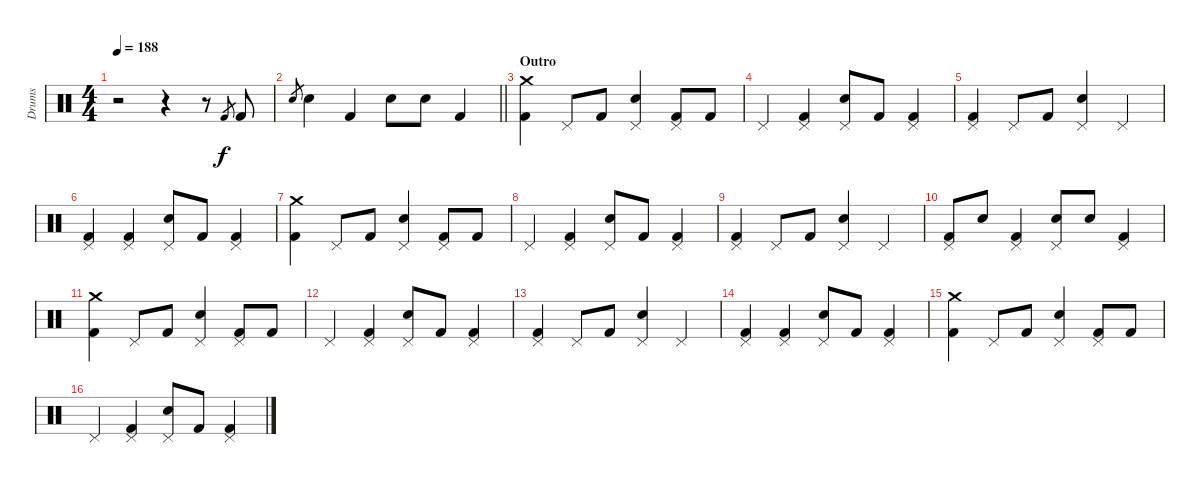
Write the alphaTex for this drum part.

\track ("Drums" "Drums") {instrument percussion}
\staff {score}
\articulation defaults
\ts (4 4)
\tempo 188
\clef neutral
\ks c
r.2{dy f} r.4 r.8 "Kick (hit) 2".8{gr} "Kick (hit) 2".8 |
\barLineRight lightlight "Electric Snare (hit)".8{gr} "Electric Snare (hit)".4 "Kick (hit) 2".4 "Electric Snare (hit)".8 "Electric Snare (hit)".8 "Kick (hit) 2".4
|
\section ("" "Outro")
("Crash medium (hit)" "Kick (hit) 2").4 "Pedal Hi-Hat (hit)".8 "Kick (hit) 2".8 ("Pedal Hi-Hat (hit)" "Electric Snare (hit)").4 ("Pedal Hi-Hat (hit)" "Kick (hit) 2").8 "Kick (hit) 2".8 |
"Pedal Hi-Hat (hit)".4 ("Pedal Hi-Hat (hit)" "Kick (hit) 2").4 ("Pedal Hi-Hat (hit)" "Electric Snare (hit)").8 "Kick (hit) 2".8 ("Pedal Hi-Hat (hit)" "Kick (hit) 2").4 |
("Pedal Hi-Hat (hit)" "Kick (hit) 2").4 "Pedal Hi-Hat (hit)".8 "Kick (hit) 2".8 ("Pedal Hi-Hat (hit)" "Electric Snare (hit)").4 "Pedal Hi-Hat (hit)".4 |
("Pedal Hi-Hat (hit)" "Kick (hit) 2").4 ("Pedal Hi-Hat (hit)" "Kick (hit) 2").4 ("Pedal Hi-Hat (hit)" "Electric Snare (hit)").8 "Kick (hit) 2".8 ("Pedal Hi-Hat (hit)" "Kick (hit) 2").4 |
("Crash medium (hit)" "Kick (hit) 2").4 "Pedal Hi-Hat (hit)".8 "Kick (hit) 2".8 ("Pedal Hi-Hat (hit)" "Electric Snare (hit)").4 ("Pedal Hi-Hat (hit)" "Kick (hit) 2").8 "Kick (hit) 2".8 |
"Pedal Hi-Hat (hit)".4 ("Pedal Hi-Hat (hit)" "Kick (hit) 2").4 ("Pedal Hi-Hat (hit)" "Electric Snare (hit)").8 "Kick (hit) 2".8 ("Pedal Hi-Hat (hit)" "Kick (hit) 2").4 |
("Pedal Hi-Hat (hit)" "Kick (hit) 2").4 "Pedal Hi-Hat (hit)".8 "Kick (hit) 2".8 ("Pedal Hi-Hat (hit)" "Electric Snare (hit)").4 "Pedal Hi-Hat (hit)".4 |
("Pedal Hi-Hat (hit)" "Kick (hit) 2").8 "Electric Snare (hit)".8 ("Pedal Hi-Hat (hit)" "Kick (hit) 2").4 ("Pedal Hi-Hat (hit)" "Electric Snare (hit)").8 "Electric Snare (hit)".8 ("Pedal Hi-Hat (hit)" "Kick (hit) 2").4 |
("Crash medium (hit)" "Kick (hit) 2").4 "Pedal Hi-Hat (hit)".8 "Kick (hit) 2".8 ("Pedal Hi-Hat (hit)" "Electric Snare (hit)").4 ("Pedal Hi-Hat (hit)" "Kick (hit) 2").8 "Kick (hit) 2".8 |
"Pedal Hi-Hat (hit)".4 ("Pedal Hi-Hat (hit)" "Kick (hit) 2").4 ("Pedal Hi-Hat (hit)" "Electric Snare (hit)").8 "Kick (hit) 2".8 ("Pedal Hi-Hat (hit)" "Kick (hit) 2").4 |
("Pedal Hi-Hat (hit)" "Kick (hit) 2").4 "Pedal Hi-Hat (hit)".8 "Kick (hit) 2".8 ("Pedal Hi-Hat (hit)" "Electric Snare (hit)").4 "Pedal Hi-Hat (hit)".4 |
("Pedal Hi-Hat (hit)" "Kick (hit) 2").4 ("Pedal Hi-Hat (hit)" "Kick (hit) 2").4 ("Pedal Hi-Hat (hit)" "Electric Snare (hit)").8 "Kick (hit) 2".8 ("Pedal Hi-Hat (hit)" "Kick (hit) 2").4 |
("Crash medium (hit)" "Kick (hit) 2").4 "Pedal Hi-Hat (hit)".8 "Kick (hit) 2".8 ("Pedal Hi-Hat (hit)" "Electric Snare (hit)").4 ("Pedal Hi-Hat (hit)" "Kick (hit) 2").8 "Kick (hit) 2".8 |
"Pedal Hi-Hat (hit)".4 ("Pedal Hi-Hat (hit)" "Kick (hit) 2").4 ("Pedal Hi-Hat (hit)" "Electric Snare (hit)").8 "Kick (hit) 2".8 ("Pedal Hi-Hat (hit)" "Kick (hit) 2").4
